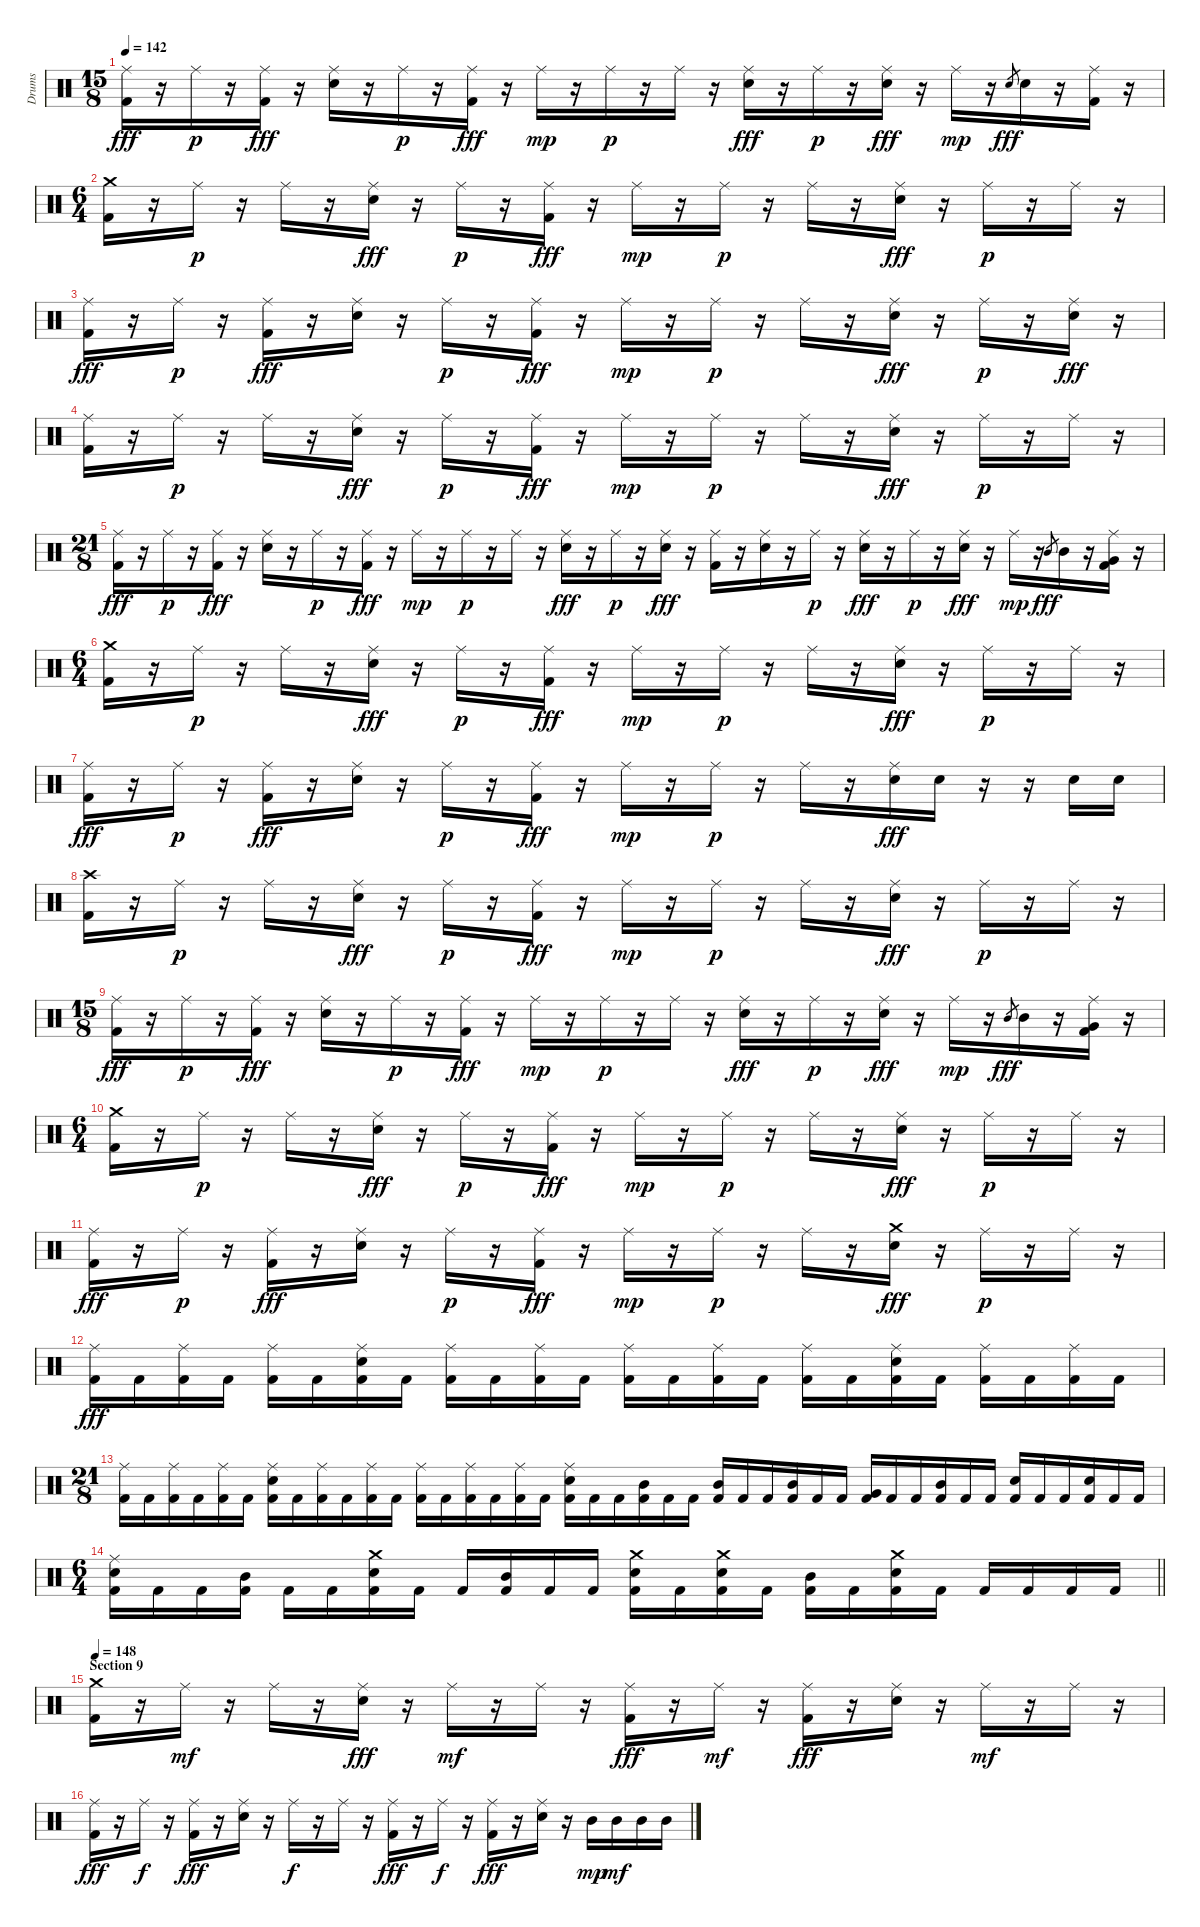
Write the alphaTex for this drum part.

\track ("Drums" "Drums") {instrument percussion}
\staff {score}
\articulation defaults
\ts (15 8)
\tempo 142
\clef neutral
\ks c
("Ride (middle)" "Kick (hit) 2").16{dy fff} r.16 "Ride (middle)".16{dy p} r.16 ("Ride (middle)" "Kick (hit) 2").16{dy fff} r.16 ("Ride (middle)" "Electric Snare (hit)").16 r.16 "Ride (middle)".16{dy p} r.16 ("Ride (middle)" "Kick (hit) 2").16{dy fff} r.16 "Ride (middle)".16{dy mp} r.16 "Ride (middle)".16{dy p} r.16 "Ride (middle)".16 r.16 ("Ride (middle)" "Electric Snare (hit)").16{dy fff} r.16 "Ride (middle)".16{dy p} r.16 ("Ride (middle)" "Electric Snare (hit)").16{dy fff} r.16 "Ride (middle)".16{dy mp} r.16 "Electric Snare (hit)".8{gr dy fff} "Electric Snare (hit)".16 r.16 ("Ride (middle)" "Kick (hit) 2").16 r.16 |
\ts (6 4)
("Crash medium (hit)" "Kick (hit) 2").16 r.16 "Ride (middle)".16{dy p} r.16 "Ride (middle)".16 r.16 ("Ride (middle)" "Electric Snare (hit)").16{dy fff} r.16 "Ride (middle)".16{dy p} r.16 ("Ride (middle)" "Kick (hit) 2").16{dy fff} r.16 "Ride (middle)".16{dy mp} r.16 "Ride (middle)".16{dy p} r.16 "Ride (middle)".16 r.16 ("Ride (middle)" "Electric Snare (hit)").16{dy fff} r.16 "Ride (middle)".16{dy p} r.16 "Ride (middle)".16 r.16 |
("Ride (middle)" "Kick (hit) 2").16{dy fff} r.16 "Ride (middle)".16{dy p} r.16 ("Ride (middle)" "Kick (hit) 2").16{dy fff} r.16 ("Ride (middle)" "Electric Snare (hit)").16 r.16 "Ride (middle)".16{dy p} r.16 ("Ride (middle)" "Kick (hit) 2").16{dy fff} r.16 "Ride (middle)".16{dy mp} r.16 "Ride (middle)".16{dy p} r.16 "Ride (middle)".16 r.16 ("Ride (middle)" "Electric Snare (hit)").16{dy fff} r.16 "Ride (middle)".16{dy p} r.16 ("Ride (middle)" "Electric Snare (hit)").16{dy fff} r.16 |
("Ride (middle)" "Kick (hit) 2").16 r.16 "Ride (middle)".16{dy p} r.16 "Ride (middle)".16 r.16 ("Ride (middle)" "Electric Snare (hit)").16{dy fff} r.16 "Ride (middle)".16{dy p} r.16 ("Ride (middle)" "Kick (hit) 2").16{dy fff} r.16 "Ride (middle)".16{dy mp} r.16 "Ride (middle)".16{dy p} r.16 "Ride (middle)".16 r.16 ("Ride (middle)" "Electric Snare (hit)").16{dy fff} r.16 "Ride (middle)".16{dy p} r.16 "Ride (middle)".16 r.16 |
\ts (21 8)
("Ride (middle)" "Kick (hit) 2").16{dy fff} r.16 "Ride (middle)".16{dy p} r.16 ("Ride (middle)" "Kick (hit) 2").16{dy fff} r.16 ("Ride (middle)" "Electric Snare (hit)").16 r.16 "Ride (middle)".16{dy p} r.16 ("Ride (middle)" "Kick (hit) 2").16{dy fff} r.16 "Ride (middle)".16{dy mp} r.16 "Ride (middle)".16{dy p} r.16 "Ride (middle)".16 r.16 ("Ride (middle)" "Electric Snare (hit)").16{dy fff} r.16 "Ride (middle)".16{dy p} r.16 ("Ride (middle)" "Electric Snare (hit)").16{dy fff} r.16 ("Ride (middle)" "Kick (hit) 2").16 r.16 ("Ride (middle)" "Electric Snare (hit)").16 r.16 "Ride (middle)".16{dy p} r.16 ("Ride (middle)" "Electric Snare (hit)").16{dy fff} r.16 "Ride (middle)".16{dy p} r.16 ("Ride (middle)" "Electric Snare (hit)").16{dy fff} r.16 "Ride (middle)".16{dy mp} r.16 "Mid Tom (hit)".8{gr dy fff} "Mid Tom (hit)".16 r.16 ("Ride (middle)" "Very Low Tom (hit)" "Kick (hit) 2").16 r.16 |
\ts (6 4)
("Crash medium (hit)" "Kick (hit) 2").16 r.16 "Ride (middle)".16{dy p} r.16 "Ride (middle)".16 r.16 ("Ride (middle)" "Electric Snare (hit)").16{dy fff} r.16 "Ride (middle)".16{dy p} r.16 ("Ride (middle)" "Kick (hit) 2").16{dy fff} r.16 "Ride (middle)".16{dy mp} r.16 "Ride (middle)".16{dy p} r.16 "Ride (middle)".16 r.16 ("Ride (middle)" "Electric Snare (hit)").16{dy fff} r.16 "Ride (middle)".16{dy p} r.16 "Ride (middle)".16 r.16 |
("Ride (middle)" "Kick (hit) 2").16{dy fff} r.16 "Ride (middle)".16{dy p} r.16 ("Ride (middle)" "Kick (hit) 2").16{dy fff} r.16 ("Ride (middle)" "Electric Snare (hit)").16 r.16 "Ride (middle)".16{dy p} r.16 ("Ride (middle)" "Kick (hit) 2").16{dy fff} r.16 "Ride (middle)".16{dy mp} r.16 "Ride (middle)".16{dy p} r.16 "Ride (middle)".16 r.16 ("Ride (middle)" "Electric Snare (hit)").16{dy fff} "Electric Snare (hit)".16 r.16 r.16 "Electric Snare (hit)".16 "Electric Snare (hit)".16 |
("Crash high (hit)" "Kick (hit) 2").16 r.16 "Ride (middle)".16{dy p} r.16 "Ride (middle)".16 r.16 ("Ride (middle)" "Electric Snare (hit)").16{dy fff} r.16 "Ride (middle)".16{dy p} r.16 ("Ride (middle)" "Kick (hit) 2").16{dy fff} r.16 "Ride (middle)".16{dy mp} r.16 "Ride (middle)".16{dy p} r.16 "Ride (middle)".16 r.16 ("Ride (middle)" "Electric Snare (hit)").16{dy fff} r.16 "Ride (middle)".16{dy p} r.16 "Ride (middle)".16 r.16 |
\ts (15 8)
("Ride (middle)" "Kick (hit) 2").16{dy fff} r.16 "Ride (middle)".16{dy p} r.16 ("Ride (middle)" "Kick (hit) 2").16{dy fff} r.16 ("Ride (middle)" "Electric Snare (hit)").16 r.16 "Ride (middle)".16{dy p} r.16 ("Ride (middle)" "Kick (hit) 2").16{dy fff} r.16 "Ride (middle)".16{dy mp} r.16 "Ride (middle)".16{dy p} r.16 "Ride (middle)".16 r.16 ("Ride (middle)" "Electric Snare (hit)").16{dy fff} r.16 "Ride (middle)".16{dy p} r.16 ("Ride (middle)" "Electric Snare (hit)").16{dy fff} r.16 "Ride (middle)".16{dy mp} r.16 "Mid Tom (hit)".8{gr dy fff} "Mid Tom (hit)".16 r.16 ("Ride (middle)" "Very Low Tom (hit)" "Kick (hit) 2").16 r.16 |
\ts (6 4)
("Crash medium (hit)" "Kick (hit) 2").16 r.16 "Ride (middle)".16{dy p} r.16 "Ride (middle)".16 r.16 ("Ride (middle)" "Electric Snare (hit)").16{dy fff} r.16 "Ride (middle)".16{dy p} r.16 ("Ride (middle)" "Kick (hit) 2").16{dy fff} r.16 "Ride (middle)".16{dy mp} r.16 "Ride (middle)".16{dy p} r.16 "Ride (middle)".16 r.16 ("Ride (middle)" "Electric Snare (hit)").16{dy fff} r.16 "Ride (middle)".16{dy p} r.16 "Ride (middle)".16 r.16 |
("Ride (middle)" "Kick (hit) 2").16{dy fff} r.16 "Ride (middle)".16{dy p} r.16 ("Ride (middle)" "Kick (hit) 2").16{dy fff} r.16 ("Ride (middle)" "Electric Snare (hit)").16 r.16 "Ride (middle)".16{dy p} r.16 ("Ride (middle)" "Kick (hit) 2").16{dy fff} r.16 "Ride (middle)".16{dy mp} r.16 "Ride (middle)".16{dy p} r.16 "Ride (middle)".16 r.16 ("Crash medium (hit)" "Electric Snare (hit)").16{dy fff} r.16 "Ride (middle)".16{dy p} r.16 "Ride (middle)".16 r.16 |
("Ride (middle)" "Kick (hit) 2").16{dy fff} "Kick (hit) 2".16 ("Ride (middle)" "Kick (hit) 2").16 "Kick (hit) 2".16 ("Ride (middle)" "Kick (hit) 2").16 "Kick (hit) 2".16 ("Ride (middle)" "Electric Snare (hit)" "Kick (hit) 2").16 "Kick (hit) 2".16 ("Ride (middle)" "Kick (hit) 2").16 "Kick (hit) 2".16 ("Ride (middle)" "Kick (hit) 2").16 "Kick (hit) 2".16 ("Ride (middle)" "Kick (hit) 2").16 "Kick (hit) 2".16 ("Ride (middle)" "Kick (hit) 2").16 "Kick (hit) 2".16 ("Ride (middle)" "Kick (hit) 2").16 "Kick (hit) 2".16 ("Ride (middle)" "Electric Snare (hit)" "Kick (hit) 2").16 "Kick (hit) 2".16 ("Ride (middle)" "Kick (hit) 2").16 "Kick (hit) 2".16 ("Ride (middle)" "Kick (hit) 2").16 "Kick (hit) 2".16 |
\ts (21 8)
("Ride (middle)" "Kick (hit) 2").16 "Kick (hit) 2".16 ("Ride (middle)" "Kick (hit) 2").16 "Kick (hit) 2".16 ("Ride (middle)" "Kick (hit) 2").16 "Kick (hit) 2".16 ("Ride (middle)" "Electric Snare (hit)" "Kick (hit) 2").16 "Kick (hit) 2".16 ("Ride (middle)" "Kick (hit) 2").16 "Kick (hit) 2".16 ("Ride (middle)" "Kick (hit) 2").16 "Kick (hit) 2".16 ("Ride (middle)" "Kick (hit) 2").16 "Kick (hit) 2".16 ("Ride (middle)" "Kick (hit) 2").16 "Kick (hit) 2".16 ("Ride (middle)" "Kick (hit) 2").16 "Kick (hit) 2".16 ("Ride (middle)" "Electric Snare (hit)" "Kick (hit) 2").16 "Kick (hit) 2".16 "Kick (hit) 2".16 ("Mid Tom (hit)" "Kick (hit) 2").16 "Kick (hit) 2".16 "Kick (hit) 2".16 ("Mid Tom (hit)" "Kick (hit) 2").16 "Kick (hit) 2".16 "Kick (hit) 2".16 ("Mid Tom (hit)" "Kick (hit) 2").16 "Kick (hit) 2".16 "Kick (hit) 2".16 ("Very Low Tom (hit)" "Kick (hit) 2").16 "Kick (hit) 2".16 "Kick (hit) 2".16 ("Mid Tom (hit)" "Kick (hit) 2").16 "Kick (hit) 2".16 "Kick (hit) 2".16 ("Electric Snare (hit)" "Kick (hit) 2").16 "Kick (hit) 2".16 "Kick (hit) 2".16 ("Electric Snare (hit)" "Kick (hit) 2").16 "Kick (hit) 2".16 "Kick (hit) 2".16 |
\ts (6 4)
\barLineRight lightlight
("Ride (middle)" "Electric Snare (hit)" "Kick (hit) 2").16 "Kick (hit) 2".16 "Kick (hit) 2".16 ("Mid Tom (hit)" "Kick (hit) 2").16 "Kick (hit) 2".16 "Kick (hit) 2".16 ("Crash medium (hit)" "Electric Snare (hit)" "Kick (hit) 2").16 "Kick (hit) 2".16 "Kick (hit) 2".16 ("Mid Tom (hit)" "Kick (hit) 2").16 "Kick (hit) 2".16 "Kick (hit) 2".16 ("Crash medium (hit)" "Electric Snare (hit)" "Kick (hit) 2").16 "Kick (hit) 2".16 ("Crash medium (hit)" "Electric Snare (hit)" "Kick (hit) 2").16 "Kick (hit) 2".16 ("Mid Tom (hit)" "Kick (hit) 2").16 "Kick (hit) 2".16 ("Crash medium (hit)" "Electric Snare (hit)" "Kick (hit) 2").16 "Kick (hit) 2".16 "Kick (hit) 2".16 "Kick (hit) 2".16 "Kick (hit) 2".16 "Kick (hit) 2".16 |
\section ("" "Section 9")
\tempo 148
("Crash medium (hit)" "Kick (hit) 2").16 r.16 "Ride (middle)".16{dy mf} r.16 "Ride (middle)".16 r.16 ("Ride (middle)" "Electric Snare (hit)").16{dy fff} r.16 "Ride (middle)".16{dy mf} r.16 "Ride (middle)".16 r.16 ("Ride (middle)" "Kick (hit) 2").16{dy fff} r.16 "Ride (middle)".16{dy mf} r.16 ("Ride (middle)" "Kick (hit) 2").16{dy fff} r.16 ("Ride (middle)" "Electric Snare (hit)").16 r.16 "Ride (middle)".16{dy mf} r.16 "Ride (middle)".16 r.16 |
("Ride (middle)" "Kick (hit) 2").16{dy fff} r.16 "Ride (middle)".16{dy f} r.16 ("Ride (middle)" "Kick (hit) 2").16{dy fff} r.16 ("Ride (middle)" "Electric Snare (hit)").16 r.16 "Ride (middle)".16{dy f} r.16 "Ride (middle)".16 r.16 ("Ride (middle)" "Kick (hit) 2").16{dy fff} r.16 "Ride (middle)".16{dy f} r.16 ("Ride (middle)" "Kick (hit) 2").16{dy fff} r.16 ("Ride (middle)" "Electric Snare (hit)").16 r.16 "Mid Tom (hit)".16{dy mp} "Mid Tom (hit)".16{dy mf} "Mid Tom (hit)".16 "Mid Tom (hit)".16
